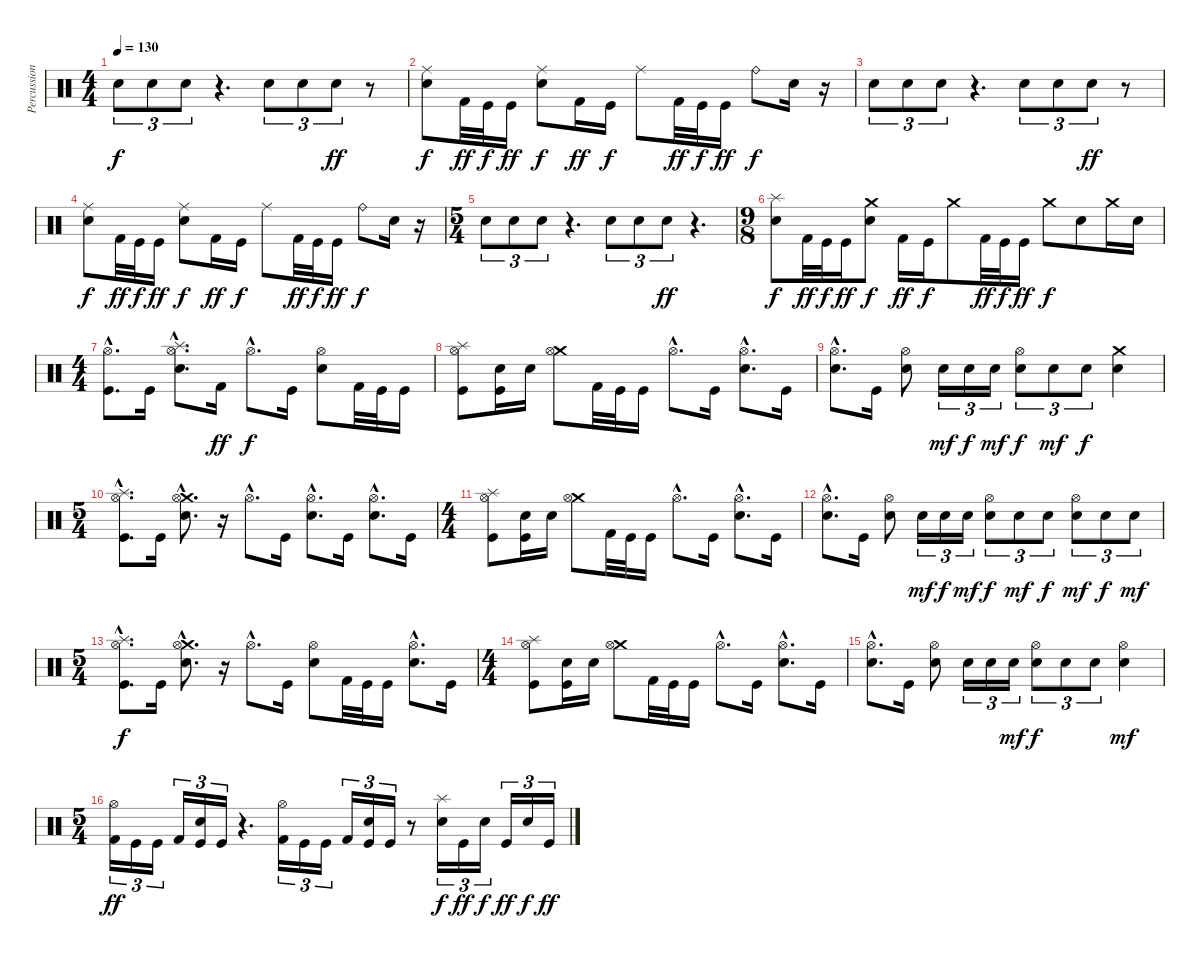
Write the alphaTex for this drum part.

\track ("Percussioni" "Percussion") {instrument percussion}
\staff {score}
\articulation defaults
\ts (4 4)
\tempo 130
\clef neutral
\ks c "Snare (hit) 2".8{tu (3 2) dy f} "Snare (hit) 2".8{tu (3 2)} "Snare (hit) 2".8{tu (3 2)}
r.4{d} "Snare (hit) 2".8{tu (3 2)} "Snare (hit) 2".8{tu (3 2)} "Snare (hit) 2".8{tu (3 2) dy ff} r.8 |
("Ride (middle)" "Snare (hit) 2").8{dy f} "Kick (hit) 2".32{dy ff} "Kick (hit)".32{dy f} "Kick (hit)".16{dy ff} ("Ride (middle)" "Snare (hit) 2").8{dy f} "Kick (hit) 2".16{dy ff} "Kick (hit)".16{dy f} "Ride (middle)".8 "Kick (hit) 2".32{dy ff} "Kick (hit)".32{dy f} "Kick (hit)".16{dy ff} "Ride (bell)".8{dy f} "Snare (hit) 2".16 r.16 |
"Snare (hit) 2".8{tu (3 2)} "Snare (hit) 2".8{tu (3 2)} "Snare (hit) 2".8{tu (3 2)} r.4{d} "Snare (hit) 2".8{tu (3 2)} "Snare (hit) 2".8{tu (3 2)} "Snare (hit) 2".8{tu (3 2) dy ff} r.8 |
("Ride (middle)" "Snare (hit) 2").8{dy f} "Kick (hit) 2".32{dy ff} "Kick (hit)".32{dy f} "Kick (hit)".16{dy ff} ("Ride (middle)" "Snare (hit) 2").8{dy f} "Kick (hit) 2".16{dy ff} "Kick (hit)".16{dy f} "Ride (middle)".8 "Kick (hit) 2".32{dy ff} "Kick (hit)".32{dy f} "Kick (hit)".16{dy ff} "Ride (bell)".8{dy f} "Snare (hit) 2".16 r.16 |
\ts (5 4)
"Snare (hit) 2".8{tu (3 2)} "Snare (hit) 2".8{tu (3 2)} "Snare (hit) 2".8{tu (3 2)} r.4{d} "Snare (hit) 2".8{tu (3 2)} "Snare (hit) 2".8{tu (3 2)} "Snare (hit) 2".8{tu (3 2) dy ff} r.4{d} |
\ts (9 8)
("Splash (hit)" "Snare (hit) 2").8{dy f} "Kick (hit) 2".32{dy ff} "Kick (hit)".32{dy f} "Kick (hit)".16{dy ff} ("Crash medium (hit)" "Snare (hit) 2").8{dy f} "Kick (hit) 2".16{dy ff} "Kick (hit)".16{dy f} "Crash medium (hit)".8 "Kick (hit) 2".32{dy ff} "Kick (hit)".32{dy f} "Kick (hit)".16{dy ff} "Crash medium (hit)".8{dy f} "Snare (hit) 2".8 "Crash medium (hit)".16 "Snare (hit) 2".16 |
\ts (4 4)
("Hi-Hat (open)"{hac} "Kick (hit)"{hac}).8{d} "Kick (hit)".16 ("Splash (hit)"{hac} "Hi-Hat (open)"{hac} "Snare (hit) 2"{hac}).8{d} "Kick (hit) 2".16{dy ff} "Hi-Hat (open)"{hac}.8{d dy f} "Kick (hit)".16 ("Hi-Hat (open)" "Snare (hit) 2").8 "Kick (hit) 2".32 "Kick (hit)".32 "Kick (hit)".16 |
("Splash (hit)" "Hi-Hat (open)" "Kick (hit)").8 ("Snare (hit) 2" "Kick (hit)").16 "Snare (hit) 2".16 ("Crash medium (hit)" "Hi-Hat (open)").8 "Kick (hit) 2".32 "Kick (hit)".32 "Kick (hit)".16 "Hi-Hat (open)"{hac}.8{d} "Kick (hit)".16 ("Hi-Hat (open)"{hac} "Snare (hit) 2"{hac}).8{d} "Kick (hit)".16 |
("Hi-Hat (open)"{hac} "Snare (hit) 2"{hac}).8{d} "Kick (hit)".16 ("Hi-Hat (open)" "Snare (hit) 2").8 "Snare (hit) 2".16{tu (3 2) dy mf} "Snare (hit) 2".16{tu (3 2) dy f} "Snare (hit) 2".16{tu (3 2) dy mf} ("Hi-Hat (open)" "Snare (hit) 2").8{tu (3 2) dy f} "Snare (hit) 2".8{tu (3 2) dy mf} "Snare (hit) 2".8{tu (3 2) dy f} ("Crash medium (hit)" "Snare (hit) 2").4 |
\ts (5 4)
("Splash (hit)"{hac} "Hi-Hat (open)"{hac} "Kick (hit)"{hac}).8{d} "Kick (hit)".16 ("Crash medium (hit)"{hac} "Hi-Hat (open)"{hac} "Snare (hit) 2"{hac}).8{d} r.16 "Hi-Hat (open)"{hac}.8{d} "Kick (hit)".16 ("Hi-Hat (open)"{hac} "Snare (hit) 2"{hac}).8{d} "Kick (hit)".16 ("Hi-Hat (open)"{hac} "Snare (hit) 2"{hac}).8{d} "Kick (hit)".16 |
\ts (4 4)
("Splash (hit)" "Hi-Hat (open)" "Kick (hit)").8 ("Snare (hit) 2" "Kick (hit)").16 "Snare (hit) 2".16 ("Crash medium (hit)" "Hi-Hat (open)").8 "Kick (hit) 2".32 "Kick (hit)".32 "Kick (hit)".16 "Hi-Hat (open)"{hac}.8{d} "Kick (hit)".16 ("Hi-Hat (open)"{hac} "Snare (hit) 2"{hac}).8{d} "Kick (hit)".16 |
("Hi-Hat (open)"{hac} "Snare (hit) 2"{hac}).8{d} "Kick (hit)".16 ("Hi-Hat (open)" "Snare (hit) 2").8 "Snare (hit) 2".16{tu (3 2) dy mf} "Snare (hit) 2".16{tu (3 2) dy f} "Snare (hit) 2".16{tu (3 2) dy mf} ("Hi-Hat (open)" "Snare (hit) 2").8{tu (3 2) dy f} "Snare (hit) 2".8{tu (3 2) dy mf} "Snare (hit) 2".8{tu (3 2) dy f} ("Hi-Hat (open)" "Snare (hit) 2").8{tu (3 2) dy mf} "Snare (hit) 2".8{tu (3 2) dy f} "Snare (hit) 2".8{tu (3 2) dy mf} |
\ts (5 4)
("Splash (hit)"{hac} "Hi-Hat (open)"{hac} "Kick (hit)"{hac}).8{d dy f} "Kick (hit)".16 ("Crash medium (hit)"{hac} "Hi-Hat (open)"{hac} "Snare (hit) 2"{hac}).8{d} r.16 "Hi-Hat (open)"{hac}.8{d} "Kick (hit)".16 ("Hi-Hat (open)" "Snare (hit) 2").8 "Kick (hit) 2".32 "Kick (hit)".32 "Kick (hit)".16 ("Hi-Hat (open)"{hac} "Snare (hit) 2"{hac}).8{d} "Kick (hit)".16 |
\ts (4 4)
("Splash (hit)" "Hi-Hat (open)" "Kick (hit)").8 ("Snare (hit) 2" "Kick (hit)").16 "Snare (hit) 2".16 ("Crash medium (hit)" "Hi-Hat (open)").8 "Kick (hit) 2".32 "Kick (hit)".32 "Kick (hit)".16 "Hi-Hat (open)"{hac}.8{d} "Kick (hit)".16 ("Hi-Hat (open)"{hac} "Snare (hit) 2"{hac}).8{d} "Kick (hit)".16 |
("Hi-Hat (open)"{hac} "Snare (hit) 2"{hac}).8{d} "Kick (hit)".16 ("Hi-Hat (open)" "Snare (hit) 2").8 "Snare (hit) 2".16{tu (3 2)} "Snare (hit) 2".16{tu (3 2)} "Snare (hit) 2".16{tu (3 2) dy mf} ("Hi-Hat (open)" "Snare (hit) 2").8{tu (3 2) dy f} "Snare (hit) 2".8{tu (3 2)} "Snare (hit) 2".8{tu (3 2)} ("Hi-Hat (open)" "Snare (hit) 2").4{dy mf} |
\ts (5 4)
("Hi-Hat (open)" "Kick (hit) 2").16{tu (3 2) dy ff} "Kick (hit)".16{tu (3 2)} "Kick (hit)".16{tu (3 2)} "Kick (hit) 2".16{tu (3 2)} ("Snare (hit) 2" "Kick (hit)").16{tu (3 2)} "Kick (hit)".16{tu (3 2)} r.4{d} ("Hi-Hat (open)" "Kick (hit) 2").16{tu (3 2)} "Kick (hit)".16{tu (3 2)} "Kick (hit)".16{tu (3 2)} "Kick (hit) 2".16{tu (3 2)} ("Snare (hit) 2" "Kick (hit)").16{tu (3 2)} "Kick (hit)".16{tu (3 2)} r.8 ("Splash (hit)" "Snare (hit) 2").16{tu (3 2) dy f} "Kick (hit)".16{tu (3 2) dy ff} "Snare (hit) 2".16{tu (3 2) dy f} "Kick (hit)".16{tu (3 2) dy ff} "Snare (hit) 2".16{tu (3 2) dy f} "Kick (hit)".16{tu (3 2) dy ff}
